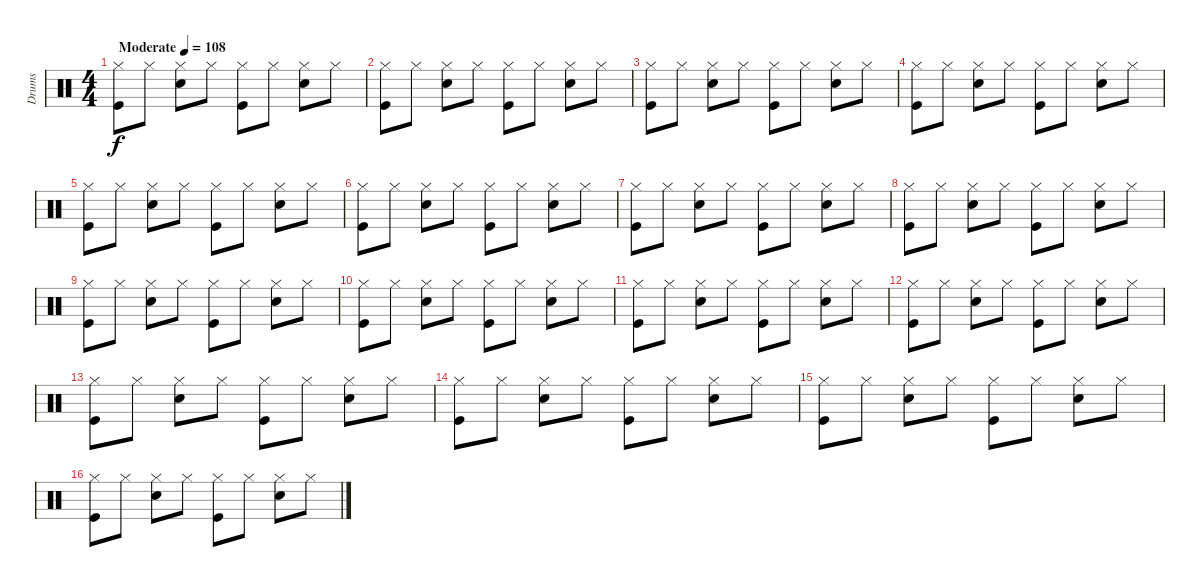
\track ("Drums" "Drums") {instrument percussion}
\staff {score}
\articulation defaults
\ts (4 4)
\tempo (108 "Moderate")
\clef neutral
\ks c
("Kick (hit)" "Hi-Hat (closed)").8{dy f} "Hi-Hat (closed)".8 ("Snare (hit) 2" "Hi-Hat (closed)").8 "Hi-Hat (closed)".8 ("Kick (hit)" "Hi-Hat (closed)").8 "Hi-Hat (closed)".8 ("Hi-Hat (closed)" "Snare (hit) 2").8 "Hi-Hat (closed)".8 |
("Kick (hit)" "Hi-Hat (closed)").8 "Hi-Hat (closed)".8 ("Snare (hit) 2" "Hi-Hat (closed)").8 "Hi-Hat (closed)".8 ("Kick (hit)" "Hi-Hat (closed)").8 "Hi-Hat (closed)".8 ("Hi-Hat (closed)" "Snare (hit) 2").8 "Hi-Hat (closed)".8 |
("Kick (hit)" "Hi-Hat (closed)").8 "Hi-Hat (closed)".8 ("Snare (hit) 2" "Hi-Hat (closed)").8 "Hi-Hat (closed)".8 ("Kick (hit)" "Hi-Hat (closed)").8 "Hi-Hat (closed)".8 ("Hi-Hat (closed)" "Snare (hit) 2").8 "Hi-Hat (closed)".8 |
("Kick (hit)" "Hi-Hat (closed)").8 "Hi-Hat (closed)".8 ("Snare (hit) 2" "Hi-Hat (closed)").8 "Hi-Hat (closed)".8 ("Kick (hit)" "Hi-Hat (closed)").8 "Hi-Hat (closed)".8 ("Hi-Hat (closed)" "Snare (hit) 2").8 "Hi-Hat (closed)".8 |
("Kick (hit)" "Hi-Hat (closed)").8 "Hi-Hat (closed)".8 ("Snare (hit) 2" "Hi-Hat (closed)").8 "Hi-Hat (closed)".8 ("Kick (hit)" "Hi-Hat (closed)").8 "Hi-Hat (closed)".8 ("Hi-Hat (closed)" "Snare (hit) 2").8 "Hi-Hat (closed)".8 |
("Kick (hit)" "Hi-Hat (closed)").8 "Hi-Hat (closed)".8 ("Snare (hit) 2" "Hi-Hat (closed)").8 "Hi-Hat (closed)".8 ("Kick (hit)" "Hi-Hat (closed)").8 "Hi-Hat (closed)".8 ("Hi-Hat (closed)" "Snare (hit) 2").8 "Hi-Hat (closed)".8 |
("Kick (hit)" "Hi-Hat (closed)").8 "Hi-Hat (closed)".8 ("Snare (hit) 2" "Hi-Hat (closed)").8 "Hi-Hat (closed)".8 ("Kick (hit)" "Hi-Hat (closed)").8 "Hi-Hat (closed)".8 ("Hi-Hat (closed)" "Snare (hit) 2").8 "Hi-Hat (closed)".8 |
("Kick (hit)" "Hi-Hat (closed)").8 "Hi-Hat (closed)".8 ("Snare (hit) 2" "Hi-Hat (closed)").8 "Hi-Hat (closed)".8 ("Kick (hit)" "Hi-Hat (closed)").8 "Hi-Hat (closed)".8 ("Hi-Hat (closed)" "Snare (hit) 2").8 "Hi-Hat (closed)".8 |
("Kick (hit)" "Hi-Hat (closed)").8 "Hi-Hat (closed)".8 ("Snare (hit) 2" "Hi-Hat (closed)").8 "Hi-Hat (closed)".8 ("Kick (hit)" "Hi-Hat (closed)").8 "Hi-Hat (closed)".8 ("Hi-Hat (closed)" "Snare (hit) 2").8 "Hi-Hat (closed)".8 |
("Kick (hit)" "Hi-Hat (closed)").8 "Hi-Hat (closed)".8 ("Snare (hit) 2" "Hi-Hat (closed)").8 "Hi-Hat (closed)".8 ("Kick (hit)" "Hi-Hat (closed)").8 "Hi-Hat (closed)".8 ("Hi-Hat (closed)" "Snare (hit) 2").8 "Hi-Hat (closed)".8 |
("Kick (hit)" "Hi-Hat (closed)").8 "Hi-Hat (closed)".8 ("Snare (hit) 2" "Hi-Hat (closed)").8 "Hi-Hat (closed)".8 ("Kick (hit)" "Hi-Hat (closed)").8 "Hi-Hat (closed)".8 ("Hi-Hat (closed)" "Snare (hit) 2").8 "Hi-Hat (closed)".8 |
("Kick (hit)" "Hi-Hat (closed)").8 "Hi-Hat (closed)".8 ("Snare (hit) 2" "Hi-Hat (closed)").8 "Hi-Hat (closed)".8 ("Kick (hit)" "Hi-Hat (closed)").8 "Hi-Hat (closed)".8 ("Hi-Hat (closed)" "Snare (hit) 2").8 "Hi-Hat (closed)".8 |
("Kick (hit)" "Hi-Hat (closed)").8 "Hi-Hat (closed)".8 ("Snare (hit) 2" "Hi-Hat (closed)").8 "Hi-Hat (closed)".8 ("Kick (hit)" "Hi-Hat (closed)").8 "Hi-Hat (closed)".8 ("Hi-Hat (closed)" "Snare (hit) 2").8 "Hi-Hat (closed)".8 |
("Kick (hit)" "Hi-Hat (closed)").8 "Hi-Hat (closed)".8 ("Snare (hit) 2" "Hi-Hat (closed)").8 "Hi-Hat (closed)".8 ("Kick (hit)" "Hi-Hat (closed)").8 "Hi-Hat (closed)".8 ("Hi-Hat (closed)" "Snare (hit) 2").8 "Hi-Hat (closed)".8 |
("Kick (hit)" "Hi-Hat (closed)").8 "Hi-Hat (closed)".8 ("Snare (hit) 2" "Hi-Hat (closed)").8 "Hi-Hat (closed)".8 ("Kick (hit)" "Hi-Hat (closed)").8 "Hi-Hat (closed)".8 ("Hi-Hat (closed)" "Snare (hit) 2").8 "Hi-Hat (closed)".8 |
("Kick (hit)" "Hi-Hat (closed)").8 "Hi-Hat (closed)".8 ("Snare (hit) 2" "Hi-Hat (closed)").8 "Hi-Hat (closed)".8 ("Kick (hit)" "Hi-Hat (closed)").8 "Hi-Hat (closed)".8 ("Hi-Hat (closed)" "Snare (hit) 2").8 "Hi-Hat (closed)".8
